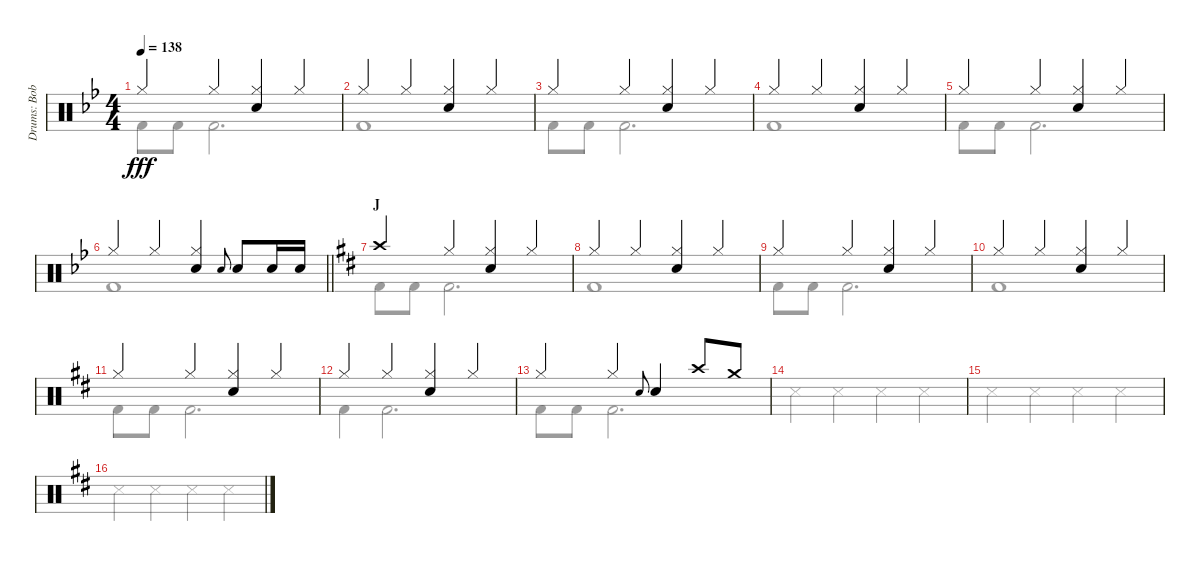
\track ("Drums: Bobby" "Drums: Bob") {instrument percussion}
\staff {score}
\articulation defaults
\voice
\ts (4 4)
\tempo 138
\clef neutral
\ks bb "Hi-Hat (closed)".4{dy fff} "Hi-Hat (closed)".4
("Hi-Hat (closed)" "Snare (hit) 2").4 "Hi-Hat (closed)".4 |
"Hi-Hat (closed)".4 "Hi-Hat (closed)".4 ("Hi-Hat (closed)" "Snare (hit) 2").4 "Hi-Hat (closed)".4 |
"Hi-Hat (closed)".4 "Hi-Hat (closed)".4 ("Hi-Hat (closed)" "Snare (hit) 2").4 "Hi-Hat (closed)".4 |
"Hi-Hat (closed)".4 "Hi-Hat (closed)".4 ("Hi-Hat (closed)" "Snare (hit) 2").4 "Hi-Hat (closed)".4 |
"Hi-Hat (closed)".4 "Hi-Hat (closed)".4 ("Hi-Hat (closed)" "Snare (hit) 2").4 "Hi-Hat (closed)".4 |
\barLineRight lightlight "Hi-Hat (closed)".4 "Hi-Hat (closed)".4
("Hi-Hat (closed)" "Snare (hit) 2").4 "Electric Snare (hit)".8{gr onbeat} "Snare (hit) 2".8 "Snare (hit) 2".16 "Snare (hit) 2".16 |
\section ("" "J")
\ks d "Crash high (hit)".4 "Hi-Hat (closed)".4
("Hi-Hat (closed)" "Snare (hit) 2").4 "Hi-Hat (closed)".4 |
"Hi-Hat (closed)".4 "Hi-Hat (closed)".4 ("Hi-Hat (closed)" "Snare (hit) 2").4 "Hi-Hat (closed)".4 |
"Hi-Hat (closed)".4 "Hi-Hat (closed)".4 ("Hi-Hat (closed)" "Snare (hit) 2").4 "Hi-Hat (closed)".4 |
"Hi-Hat (closed)".4 "Hi-Hat (closed)".4 ("Hi-Hat (closed)" "Snare (hit) 2").4 "Hi-Hat (closed)".4 |
"Hi-Hat (closed)".4 "Hi-Hat (closed)".4 ("Hi-Hat (closed)" "Snare (hit) 2").4 "Hi-Hat (closed)".4 |
"Hi-Hat (closed)".4 "Hi-Hat (closed)".4 ("Hi-Hat (closed)" "Snare (hit) 2").4 "Hi-Hat (closed)".4 |
"Hi-Hat (closed)".4 "Hi-Hat (closed)".4 "Electric Snare (hit)".8{gr onbeat} "Snare (hit) 2".4 "Crash high (hit)".8 "Crash medium (hit)".8 |
|
|
\voice
\clef neutral
\ottava regular
\simile none
\ks bb "Kick (hit) 2".8{dy fff} "Kick (hit) 2".8 "Kick (hit) 2".2{d}
|
"Kick (hit) 2".1 |
"Kick (hit) 2".8 "Kick (hit) 2".8 "Kick (hit) 2".2{d} |
"Kick (hit) 2".1 |
"Kick (hit) 2".8 "Kick (hit) 2".8 "Kick (hit) 2".2{d} |
\barLineRight lightlight "Kick (hit) 2".1
|
\ks d "Kick (hit) 2".8 "Kick (hit) 2".8 "Kick (hit) 2".2{d}
|
"Kick (hit) 2".1 |
"Kick (hit) 2".8 "Kick (hit) 2".8 "Kick (hit) 2".2{d} |
"Kick (hit) 2".1 |
"Kick (hit) 2".8 "Kick (hit) 2".8 "Kick (hit) 2".2{d} |
"Kick (hit) 2".4 "Kick (hit) 2".2{d} |
"Kick (hit) 2".8 "Kick (hit) 2".8 "Kick (hit) 2".2{d} |
"Snare (side stick) 3".4 "Snare (side stick) 3".4 "Snare (side stick) 3".4 "Snare (side stick) 3".4 |
"Snare (side stick) 3".4 "Snare (side stick) 3".4 "Snare (side stick) 3".4 "Snare (side stick) 3".4 |
"Snare (side stick) 3".4 "Snare (side stick) 3".4 "Snare (side stick) 3".4 "Snare (side stick) 3".4
